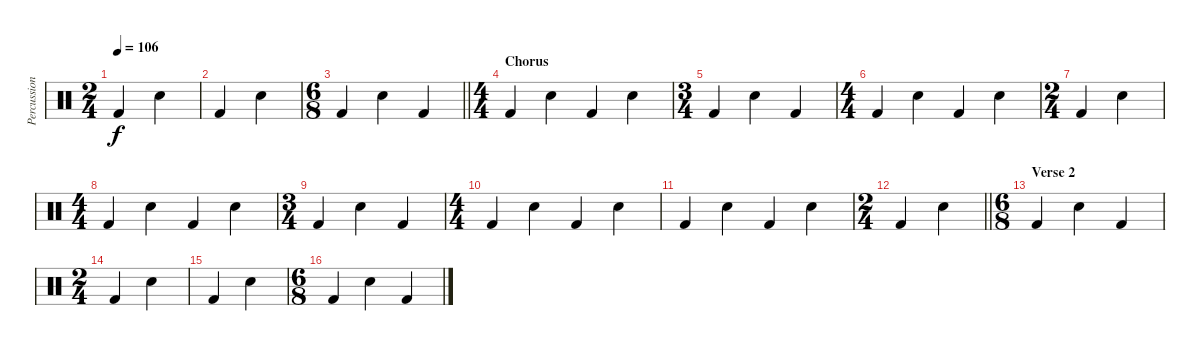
\track ("Percussion" "Percussion") {instrument percussion}
\staff {score}
\articulation defaults
\ts (2 4)
\tempo 106
\clef neutral
\ks c "Kick (hit) 2".4{dy f} "Snare (hit) 2".4
|
"Kick (hit) 2".4 "Snare (hit) 2".4 |
\ts (6 8)
\barLineRight lightlight "Kick (hit) 2".4 "Snare (hit) 2".4 "Kick (hit) 2".4
|
\ts (4 4)
\section ("" "Chorus")
"Kick (hit) 2".4 "Snare (hit) 2".4 "Kick (hit) 2".4 "Snare (hit) 2".4 |
\ts (3 4)
"Kick (hit) 2".4 "Snare (hit) 2".4 "Kick (hit) 2".4 |
\ts (4 4)
"Kick (hit) 2".4 "Snare (hit) 2".4 "Kick (hit) 2".4 "Snare (hit) 2".4 |
\ts (2 4)
"Kick (hit) 2".4 "Snare (hit) 2".4 |
\ts (4 4)
"Kick (hit) 2".4 "Snare (hit) 2".4 "Kick (hit) 2".4 "Snare (hit) 2".4 |
\ts (3 4)
"Kick (hit) 2".4 "Snare (hit) 2".4 "Kick (hit) 2".4 |
\ts (4 4)
"Kick (hit) 2".4 "Snare (hit) 2".4 "Kick (hit) 2".4 "Snare (hit) 2".4 |
"Kick (hit) 2".4 "Snare (hit) 2".4 "Kick (hit) 2".4 "Snare (hit) 2".4 |
\ts (2 4)
\barLineRight lightlight "Kick (hit) 2".4 "Snare (hit) 2".4
|
\ts (6 8)
\section ("" "Verse 2")
"Kick (hit) 2".4 "Snare (hit) 2".4 "Kick (hit) 2".4 |
\ts (2 4)
"Kick (hit) 2".4 "Snare (hit) 2".4 |
"Kick (hit) 2".4 "Snare (hit) 2".4 |
\ts (6 8)
"Kick (hit) 2".4 "Snare (hit) 2".4 "Kick (hit) 2".4
